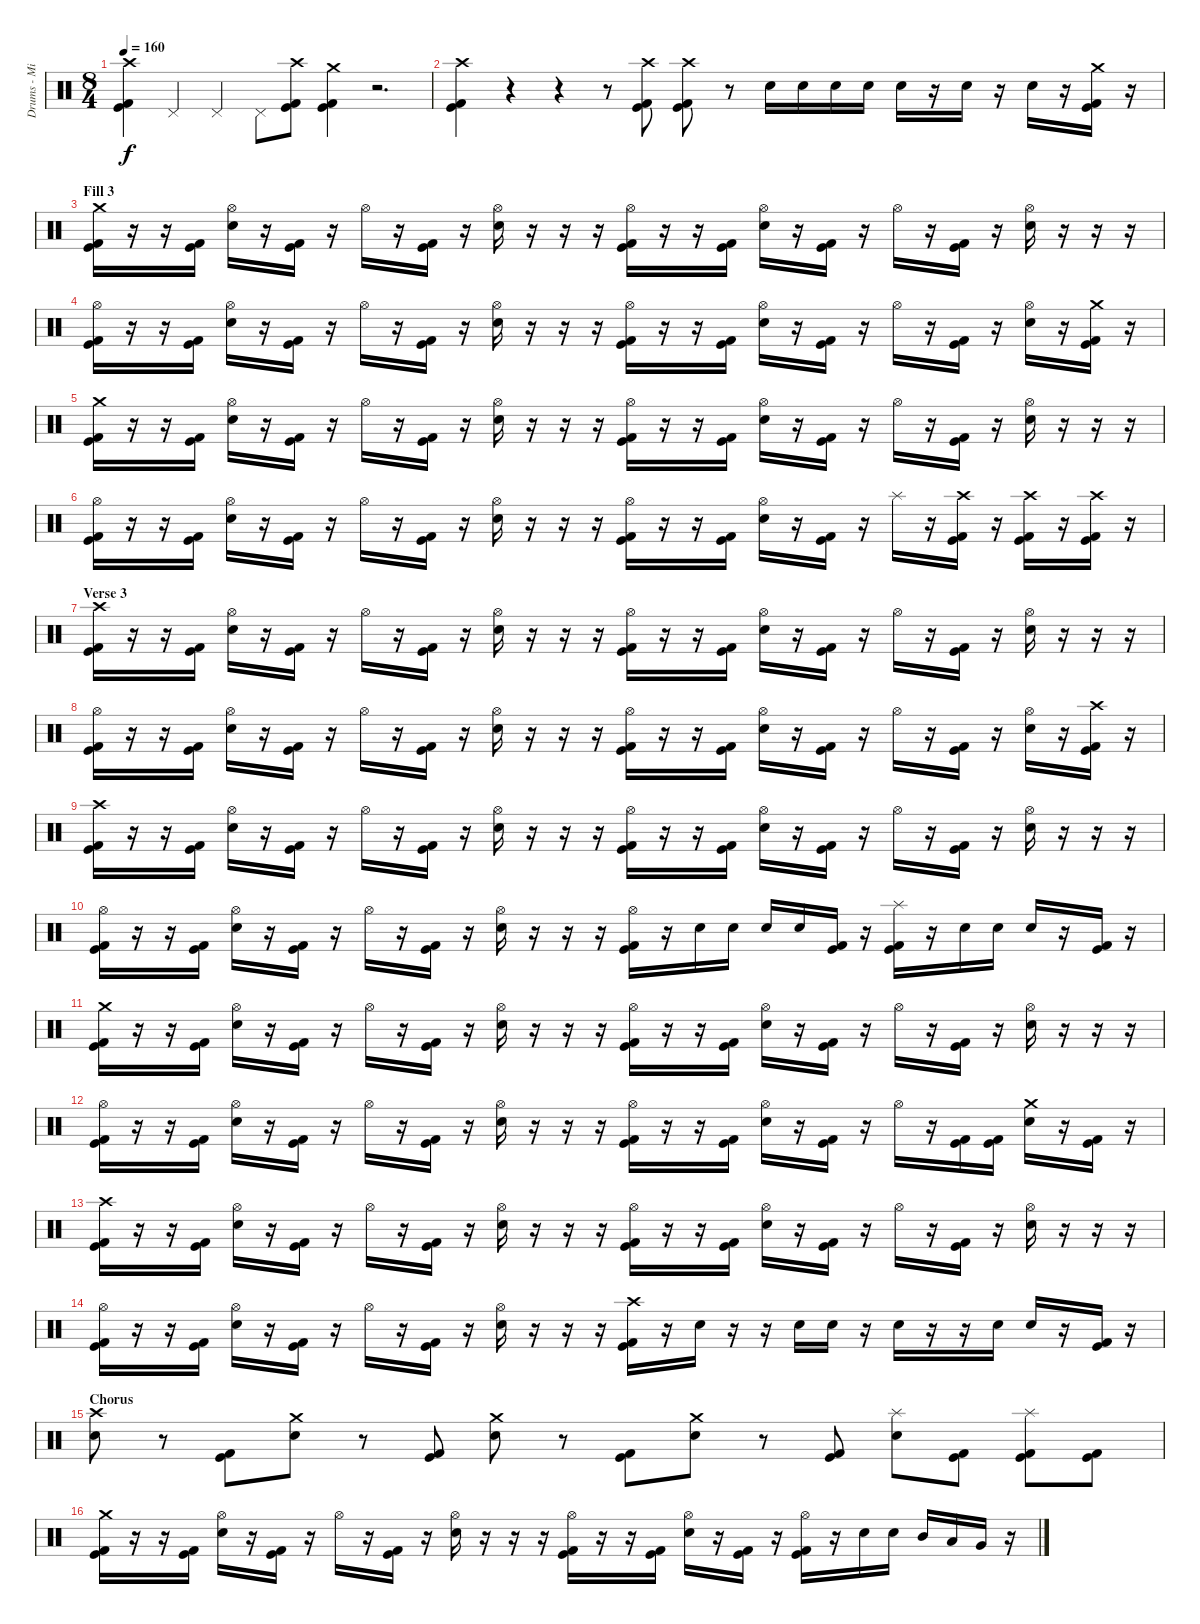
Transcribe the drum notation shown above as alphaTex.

\track ("Drums - Mikkey Dee" "Drums - Mi") {instrument percussion}
\staff {score}
\articulation defaults
\ts (8 4)
\tempo 160
\clef neutral
\ks c
("Crash high (hit)" "Kick (hit) 2" "Kick (hit)").4{dy f} "Pedal Hi-Hat (hit)".4 "Pedal Hi-Hat (hit)".4 "Pedal Hi-Hat (hit)".8 ("Crash high (hit)" "Kick (hit)" "Kick (hit) 2").8 ("Crash medium (hit)" "Kick (hit) 2" "Kick (hit)").4 r.2{d} |
("Crash high (hit)" "Kick (hit) 2" "Kick (hit)").4 r.4 r.4 r.8 ("Crash high (hit)" "Kick (hit) 2" "Kick (hit)").8 ("Crash high (hit)" "Kick (hit) 2" "Kick (hit)").8 r.8 "Electric Snare (hit)".16 "Electric Snare (hit)".16 "Electric Snare (hit)".16 "Electric Snare (hit)".16 "Electric Snare (hit)".16 r.16 "Electric Snare (hit)".16 r.16 "Electric Snare (hit)".16 r.16 ("Crash medium (hit)" "Kick (hit) 2" "Kick (hit)").16 r.16 |
\section ("" "Fill 3")
("Crash medium (hit)" "Kick (hit) 2" "Kick (hit)").16 r.16 r.16 ("Kick (hit) 2" "Kick (hit)").16 ("Hi-Hat (open)" "Electric Snare (hit)").16 r.16 ("Kick (hit) 2" "Kick (hit)").16 r.16 "Hi-Hat (open)".16 r.16 ("Kick (hit) 2" "Kick (hit)").16 r.16 ("Hi-Hat (open)" "Electric Snare (hit)").16 r.16 r.16 r.16 ("Hi-Hat (open)" "Kick (hit) 2" "Kick (hit)").16 r.16 r.16 ("Kick (hit) 2" "Kick (hit)").16 ("Hi-Hat (open)" "Electric Snare (hit)").16 r.16 ("Kick (hit) 2" "Kick (hit)").16 r.16 "Hi-Hat (open)".16 r.16 ("Kick (hit) 2" "Kick (hit)").16 r.16 ("Hi-Hat (open)" "Electric Snare (hit)").16 r.16 r.16 r.16 |
("Hi-Hat (open)" "Kick (hit) 2" "Kick (hit)").16 r.16 r.16 ("Kick (hit) 2" "Kick (hit)").16 ("Hi-Hat (open)" "Electric Snare (hit)").16 r.16 ("Kick (hit) 2" "Kick (hit)").16 r.16 "Hi-Hat (open)".16 r.16 ("Kick (hit) 2" "Kick (hit)").16 r.16 ("Hi-Hat (open)" "Electric Snare (hit)").16 r.16 r.16 r.16 ("Hi-Hat (open)" "Kick (hit) 2" "Kick (hit)").16 r.16 r.16 ("Kick (hit) 2" "Kick (hit)").16 ("Hi-Hat (open)" "Electric Snare (hit)").16 r.16 ("Kick (hit) 2" "Kick (hit)").16 r.16 "Hi-Hat (open)".16 r.16 ("Kick (hit) 2" "Kick (hit)").16 r.16 ("Hi-Hat (open)" "Electric Snare (hit)").16 r.16 ("Crash medium (hit)" "Kick (hit) 2" "Kick (hit)").16 r.16 |
("Crash medium (hit)" "Kick (hit) 2" "Kick (hit)").16 r.16 r.16 ("Kick (hit) 2" "Kick (hit)").16 ("Hi-Hat (open)" "Electric Snare (hit)").16 r.16 ("Kick (hit) 2" "Kick (hit)").16 r.16 "Hi-Hat (open)".16 r.16 ("Kick (hit) 2" "Kick (hit)").16 r.16 ("Hi-Hat (open)" "Electric Snare (hit)").16 r.16 r.16 r.16 ("Hi-Hat (open)" "Kick (hit) 2" "Kick (hit)").16 r.16 r.16 ("Kick (hit) 2" "Kick (hit)").16 ("Hi-Hat (open)" "Electric Snare (hit)").16 r.16 ("Kick (hit) 2" "Kick (hit)").16 r.16 "Hi-Hat (open)".16 r.16 ("Kick (hit) 2" "Kick (hit)").16 r.16 ("Hi-Hat (open)" "Electric Snare (hit)").16 r.16 r.16 r.16 |
("Hi-Hat (open)" "Kick (hit) 2" "Kick (hit)").16 r.16 r.16 ("Kick (hit) 2" "Kick (hit)").16 ("Hi-Hat (open)" "Electric Snare (hit)").16 r.16 ("Kick (hit) 2" "Kick (hit)").16 r.16 "Hi-Hat (open)".16 r.16 ("Kick (hit) 2" "Kick (hit)").16 r.16 ("Hi-Hat (open)" "Electric Snare (hit)").16 r.16 r.16 r.16 ("Hi-Hat (open)" "Kick (hit) 2" "Kick (hit)").16 r.16 r.16 ("Kick (hit) 2" "Kick (hit)").16 ("Hi-Hat (open)" "Electric Snare (hit)").16 r.16 ("Kick (hit) 2" "Kick (hit)").16 r.16 "Splash (hit)".16 r.16 ("Crash high (hit)" "Kick (hit)" "Kick (hit) 2").16 r.16 ("Crash high (hit)" "Kick (hit)" "Kick (hit) 2").16 r.16 ("Crash high (hit)" "Kick (hit)" "Kick (hit) 2").16 r.16 |
\section ("" "Verse 3")
("Crash high (hit)" "Kick (hit) 2" "Kick (hit)").16 r.16 r.16 ("Kick (hit) 2" "Kick (hit)").16 ("Hi-Hat (open)" "Electric Snare (hit)").16 r.16 ("Kick (hit) 2" "Kick (hit)").16 r.16 "Hi-Hat (open)".16 r.16 ("Kick (hit) 2" "Kick (hit)").16 r.16 ("Hi-Hat (open)" "Electric Snare (hit)").16 r.16 r.16 r.16 ("Hi-Hat (open)" "Kick (hit) 2" "Kick (hit)").16 r.16 r.16 ("Kick (hit) 2" "Kick (hit)").16 ("Hi-Hat (open)" "Electric Snare (hit)").16 r.16 ("Kick (hit) 2" "Kick (hit)").16 r.16 "Hi-Hat (open)".16 r.16 ("Kick (hit) 2" "Kick (hit)").16 r.16 ("Hi-Hat (open)" "Electric Snare (hit)").16 r.16 r.16 r.16 |
("Hi-Hat (open)" "Kick (hit) 2" "Kick (hit)").16 r.16 r.16 ("Kick (hit) 2" "Kick (hit)").16 ("Hi-Hat (open)" "Electric Snare (hit)").16 r.16 ("Kick (hit) 2" "Kick (hit)").16 r.16 "Hi-Hat (open)".16 r.16 ("Kick (hit) 2" "Kick (hit)").16 r.16 ("Hi-Hat (open)" "Electric Snare (hit)").16 r.16 r.16 r.16 ("Hi-Hat (open)" "Kick (hit) 2" "Kick (hit)").16 r.16 r.16 ("Kick (hit) 2" "Kick (hit)").16 ("Hi-Hat (open)" "Electric Snare (hit)").16 r.16 ("Kick (hit) 2" "Kick (hit)").16 r.16 "Hi-Hat (open)".16 r.16 ("Kick (hit) 2" "Kick (hit)").16 r.16 ("Hi-Hat (open)" "Electric Snare (hit)").16 r.16 ("Crash high (hit)" "Kick (hit)" "Kick (hit) 2").16 r.16 |
("Crash high (hit)" "Kick (hit) 2" "Kick (hit)").16 r.16 r.16 ("Kick (hit) 2" "Kick (hit)").16 ("Hi-Hat (open)" "Electric Snare (hit)").16 r.16 ("Kick (hit) 2" "Kick (hit)").16 r.16 "Hi-Hat (open)".16 r.16 ("Kick (hit) 2" "Kick (hit)").16 r.16 ("Hi-Hat (open)" "Electric Snare (hit)").16 r.16 r.16 r.16 ("Hi-Hat (open)" "Kick (hit) 2" "Kick (hit)").16 r.16 r.16 ("Kick (hit) 2" "Kick (hit)").16 ("Hi-Hat (open)" "Electric Snare (hit)").16 r.16 ("Kick (hit) 2" "Kick (hit)").16 r.16 "Hi-Hat (open)".16 r.16 ("Kick (hit) 2" "Kick (hit)").16 r.16 ("Hi-Hat (open)" "Electric Snare (hit)").16 r.16 r.16 r.16 |
("Hi-Hat (open)" "Kick (hit) 2" "Kick (hit)").16 r.16 r.16 ("Kick (hit) 2" "Kick (hit)").16 ("Hi-Hat (open)" "Electric Snare (hit)").16 r.16 ("Kick (hit) 2" "Kick (hit)").16 r.16 "Hi-Hat (open)".16 r.16 ("Kick (hit) 2" "Kick (hit)").16 r.16 ("Hi-Hat (open)" "Electric Snare (hit)").16 r.16 r.16 r.16 ("Hi-Hat (open)" "Kick (hit) 2" "Kick (hit)").16 r.16 "Electric Snare (hit)".16 "Electric Snare (hit)".16 "Electric Snare (hit)".16 "Electric Snare (hit)".16 ("Kick (hit) 2" "Kick (hit)").16 r.16 ("Splash (hit)" "Kick (hit) 2" "Kick (hit)").16 r.16 "Electric Snare (hit)".16 "Electric Snare (hit)".16 "Electric Snare (hit)".16 r.16 ("Kick (hit) 2" "Kick (hit)").16 r.16 |
("Crash medium (hit)" "Kick (hit) 2" "Kick (hit)").16 r.16 r.16 ("Kick (hit) 2" "Kick (hit)").16 ("Hi-Hat (open)" "Electric Snare (hit)").16 r.16 ("Kick (hit) 2" "Kick (hit)").16 r.16 "Hi-Hat (open)".16 r.16 ("Kick (hit) 2" "Kick (hit)").16 r.16 ("Hi-Hat (open)" "Electric Snare (hit)").16 r.16 r.16 r.16 ("Hi-Hat (open)" "Kick (hit) 2" "Kick (hit)").16 r.16 r.16 ("Kick (hit) 2" "Kick (hit)").16 ("Hi-Hat (open)" "Electric Snare (hit)").16 r.16 ("Kick (hit) 2" "Kick (hit)").16 r.16 "Hi-Hat (open)".16 r.16 ("Kick (hit) 2" "Kick (hit)").16 r.16 ("Hi-Hat (open)" "Electric Snare (hit)").16 r.16 r.16 r.16 |
("Hi-Hat (open)" "Kick (hit) 2" "Kick (hit)").16 r.16 r.16 ("Kick (hit) 2" "Kick (hit)").16 ("Hi-Hat (open)" "Electric Snare (hit)").16 r.16 ("Kick (hit) 2" "Kick (hit)").16 r.16 "Hi-Hat (open)".16 r.16 ("Kick (hit) 2" "Kick (hit)").16 r.16 ("Hi-Hat (open)" "Electric Snare (hit)").16 r.16 r.16 r.16 ("Hi-Hat (open)" "Kick (hit) 2" "Kick (hit)").16 r.16 r.16 ("Kick (hit) 2" "Kick (hit)").16 ("Hi-Hat (open)" "Electric Snare (hit)").16 r.16 ("Kick (hit) 2" "Kick (hit)").16 r.16 "Hi-Hat (open)".16 r.16 ("Kick (hit) 2" "Kick (hit)").16 ("Kick (hit) 2" "Kick (hit)").16 ("Crash medium (hit)" "Electric Snare (hit)").16 r.16 ("Kick (hit) 2" "Kick (hit)").16 r.16 |
("Crash high (hit)" "Kick (hit) 2" "Kick (hit)").16 r.16 r.16 ("Kick (hit) 2" "Kick (hit)").16 ("Hi-Hat (open)" "Electric Snare (hit)").16 r.16 ("Kick (hit) 2" "Kick (hit)").16 r.16 "Hi-Hat (open)".16 r.16 ("Kick (hit) 2" "Kick (hit)").16 r.16 ("Hi-Hat (open)" "Electric Snare (hit)").16 r.16 r.16 r.16 ("Hi-Hat (open)" "Kick (hit) 2" "Kick (hit)").16 r.16 r.16 ("Kick (hit) 2" "Kick (hit)").16 ("Hi-Hat (open)" "Electric Snare (hit)").16 r.16 ("Kick (hit) 2" "Kick (hit)").16 r.16 "Hi-Hat (open)".16 r.16 ("Kick (hit) 2" "Kick (hit)").16 r.16 ("Hi-Hat (open)" "Electric Snare (hit)").16 r.16 r.16 r.16 |
("Hi-Hat (open)" "Kick (hit) 2" "Kick (hit)").16 r.16 r.16 ("Kick (hit) 2" "Kick (hit)").16 ("Hi-Hat (open)" "Electric Snare (hit)").16 r.16 ("Kick (hit) 2" "Kick (hit)").16 r.16 "Hi-Hat (open)".16 r.16 ("Kick (hit) 2" "Kick (hit)").16 r.16 ("Hi-Hat (open)" "Electric Snare (hit)").16 r.16 r.16 r.16 ("Crash high (hit)" "Kick (hit) 2" "Kick (hit)").16 r.16 "Electric Snare (hit)".16 r.16 r.16 "Electric Snare (hit)".16 "Electric Snare (hit)".16 r.16 "Electric Snare (hit)".16 r.16 r.16 "Electric Snare (hit)".16 "Electric Snare (hit)".16 r.16 ("Kick (hit) 2" "Kick (hit)").16 r.16 |
\section ("" "Chorus")
("Crash high (hit)" "Electric Snare (hit)").8 r.8 ("Kick (hit) 2" "Kick (hit)").8 ("Crash medium (hit)" "Electric Snare (hit)").8 r.8 ("Kick (hit)" "Kick (hit) 2").8 ("Crash medium (hit)" "Electric Snare (hit)").8 r.8 ("Kick (hit) 2" "Kick (hit)").8 ("Crash medium (hit)" "Electric Snare (hit)").8 r.8 ("Kick (hit) 2" "Kick (hit)").8 ("Splash (hit)" "Electric Snare (hit)").8 ("Kick (hit) 2" "Kick (hit)").8 ("Splash (hit)" "Kick (hit) 2" "Kick (hit)").8 ("Kick (hit) 2" "Kick (hit)").8 |
("Crash medium (hit)" "Kick (hit) 2" "Kick (hit)").16 r.16 r.16 ("Kick (hit) 2" "Kick (hit)").16 ("Hi-Hat (open)" "Electric Snare (hit)").16 r.16 ("Kick (hit) 2" "Kick (hit)").16 r.16 "Hi-Hat (open)".16 r.16 ("Kick (hit) 2" "Kick (hit)").16 r.16 ("Hi-Hat (open)" "Electric Snare (hit)").16 r.16 r.16 r.16 ("Hi-Hat (open)" "Kick (hit) 2" "Kick (hit)").16 r.16 r.16 ("Kick (hit) 2" "Kick (hit)").16 ("Hi-Hat (open)" "Electric Snare (hit)").16 r.16 ("Kick (hit) 2" "Kick (hit)").16 r.16 ("Hi-Hat (open)" "Kick (hit) 2" "Kick (hit)").16 r.16 "Electric Snare (hit)".16 "Electric Snare (hit)".16 "Mid Tom (hit)".16 "Low Tom (hit)".16 "Very Low Tom (hit)".16 r.16
